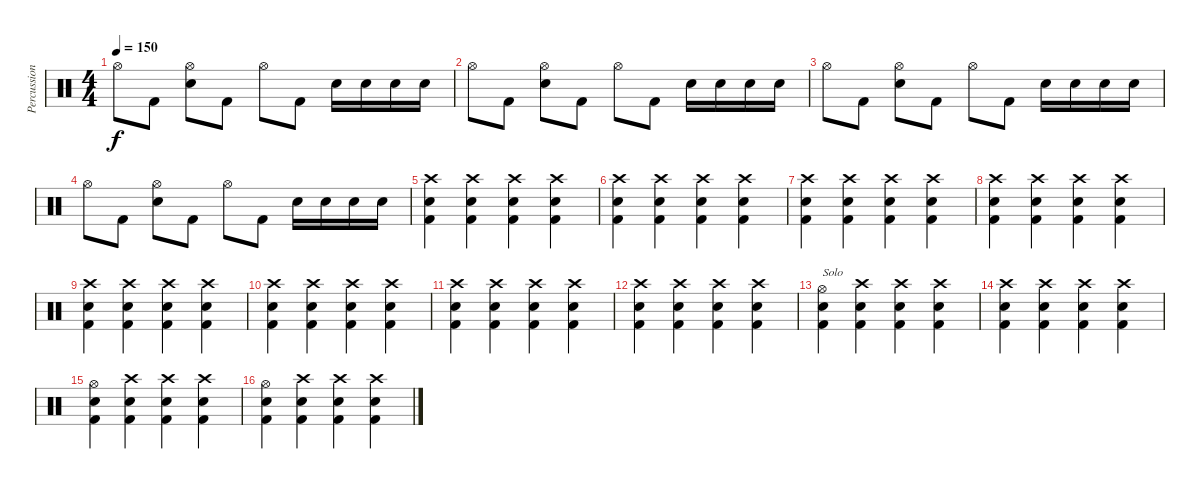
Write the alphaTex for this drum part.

\track ("Percussion" "Percussion") {instrument percussion}
\staff {score}
\articulation defaults
\ts (4 4)
\tempo 150
\clef neutral
\ks c "Hi-Hat (open)".8{dy f} "Kick (hit) 2".8
("Hi-Hat (open)" "Electric Snare (hit)").8 "Kick (hit) 2".8 "Hi-Hat (open)".8 "Kick (hit) 2".8 "Electric Snare (hit)".16 "Electric Snare (hit)".16 "Electric Snare (hit)".16 "Electric Snare (hit)".16 |
"Hi-Hat (open)".8 "Kick (hit) 2".8 ("Hi-Hat (open)" "Electric Snare (hit)").8 "Kick (hit) 2".8 "Hi-Hat (open)".8 "Kick (hit) 2".8 "Electric Snare (hit)".16 "Electric Snare (hit)".16 "Electric Snare (hit)".16 "Electric Snare (hit)".16 |
"Hi-Hat (open)".8 "Kick (hit) 2".8 ("Hi-Hat (open)" "Electric Snare (hit)").8 "Kick (hit) 2".8 "Hi-Hat (open)".8 "Kick (hit) 2".8 "Electric Snare (hit)".16 "Electric Snare (hit)".16 "Electric Snare (hit)".16 "Electric Snare (hit)".16 |
"Hi-Hat (open)".8 "Kick (hit) 2".8 ("Hi-Hat (open)" "Electric Snare (hit)").8 "Kick (hit) 2".8 "Hi-Hat (open)".8 "Kick (hit) 2".8 "Electric Snare (hit)".16 "Electric Snare (hit)".16 "Electric Snare (hit)".16 "Electric Snare (hit)".16 |
("Crash high (hit)" "Electric Snare (hit)" "Kick (hit) 2").4 ("Crash high (hit)" "Electric Snare (hit)" "Kick (hit) 2").4 ("Crash high (hit)" "Electric Snare (hit)" "Kick (hit) 2").4 ("Crash high (hit)" "Electric Snare (hit)" "Kick (hit) 2").4 |
("Crash high (hit)" "Electric Snare (hit)" "Kick (hit) 2").4 ("Crash high (hit)" "Electric Snare (hit)" "Kick (hit) 2").4 ("Crash high (hit)" "Electric Snare (hit)" "Kick (hit) 2").4 ("Crash high (hit)" "Electric Snare (hit)" "Kick (hit) 2").4 |
("Crash high (hit)" "Electric Snare (hit)" "Kick (hit) 2").4 ("Crash high (hit)" "Electric Snare (hit)" "Kick (hit) 2").4 ("Crash high (hit)" "Electric Snare (hit)" "Kick (hit) 2").4 ("Crash high (hit)" "Electric Snare (hit)" "Kick (hit) 2").4 |
("Crash high (hit)" "Electric Snare (hit)" "Kick (hit) 2").4 ("Crash high (hit)" "Electric Snare (hit)" "Kick (hit) 2").4 ("Crash high (hit)" "Electric Snare (hit)" "Kick (hit) 2").4 ("Crash high (hit)" "Electric Snare (hit)" "Kick (hit) 2").4 |
("Crash high (hit)" "Electric Snare (hit)" "Kick (hit) 2").4 ("Crash high (hit)" "Electric Snare (hit)" "Kick (hit) 2").4 ("Crash high (hit)" "Electric Snare (hit)" "Kick (hit) 2").4 ("Crash high (hit)" "Electric Snare (hit)" "Kick (hit) 2").4 |
("Crash high (hit)" "Electric Snare (hit)" "Kick (hit) 2").4 ("Crash high (hit)" "Electric Snare (hit)" "Kick (hit) 2").4 ("Crash high (hit)" "Electric Snare (hit)" "Kick (hit) 2").4 ("Crash high (hit)" "Electric Snare (hit)" "Kick (hit) 2").4 |
("Crash high (hit)" "Electric Snare (hit)" "Kick (hit) 2").4 ("Crash high (hit)" "Electric Snare (hit)" "Kick (hit) 2").4 ("Crash high (hit)" "Electric Snare (hit)" "Kick (hit) 2").4 ("Crash high (hit)" "Electric Snare (hit)" "Kick (hit) 2").4 |
("Crash high (hit)" "Electric Snare (hit)" "Kick (hit) 2").4 ("Crash high (hit)" "Electric Snare (hit)" "Kick (hit) 2").4 ("Crash high (hit)" "Electric Snare (hit)" "Kick (hit) 2").4 ("Crash high (hit)" "Electric Snare (hit)" "Kick (hit) 2").4 |
("Hi-Hat (open)" "Electric Snare (hit)" "Kick (hit) 2").4{txt "Solo"} ("Crash high (hit)" "Electric Snare (hit)" "Kick (hit) 2").4 ("Crash high (hit)" "Electric Snare (hit)" "Kick (hit) 2").4 ("Crash high (hit)" "Electric Snare (hit)" "Kick (hit) 2").4 |
("Crash high (hit)" "Electric Snare (hit)" "Kick (hit) 2").4 ("Crash high (hit)" "Electric Snare (hit)" "Kick (hit) 2").4 ("Crash high (hit)" "Electric Snare (hit)" "Kick (hit) 2").4 ("Crash high (hit)" "Electric Snare (hit)" "Kick (hit) 2").4 |
("Hi-Hat (open)" "Electric Snare (hit)" "Kick (hit) 2").4 ("Crash high (hit)" "Electric Snare (hit)" "Kick (hit) 2").4 ("Crash high (hit)" "Electric Snare (hit)" "Kick (hit) 2").4 ("Crash high (hit)" "Electric Snare (hit)" "Kick (hit) 2").4 |
("Hi-Hat (open)" "Electric Snare (hit)" "Kick (hit) 2").4 ("Crash high (hit)" "Electric Snare (hit)" "Kick (hit) 2").4 ("Crash high (hit)" "Electric Snare (hit)" "Kick (hit) 2").4 ("Crash high (hit)" "Electric Snare (hit)" "Kick (hit) 2").4
